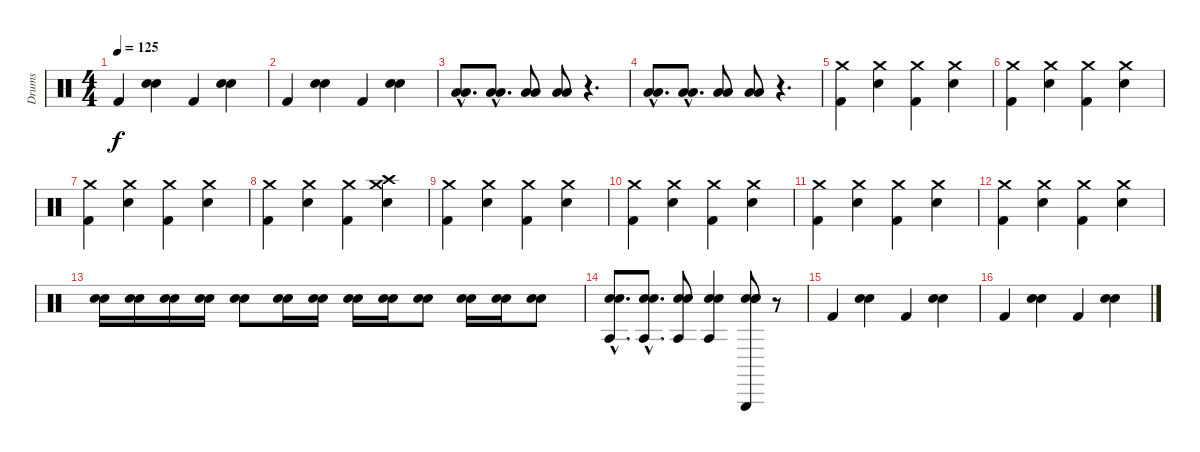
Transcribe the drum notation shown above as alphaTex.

\track ("Drums" "Drums") {instrument percussion}
\staff {score}
\articulation defaults
\ts (4 4)
\tempo 125
\clef neutral
\ks c "Kick (hit) 2".4{dy f}
("Electric Snare (hit)" "Hand Clap (hit)").4 "Kick (hit) 2".4 ("Electric Snare (hit)" "Hand Clap (hit)").4 |
"Kick (hit) 2".4 ("Electric Snare (hit)" "Hand Clap (hit)").4 "Kick (hit) 2".4 ("Electric Snare (hit)" "Hand Clap (hit)").4 |
("Low Floor Tom (hit)"{hac} "Low Tom (hit)"{hac}).8{d} ("Low Floor Tom (hit)"{hac} "Low Tom (hit)"{hac}).8{d} ("Low Floor Tom (hit)" "Low Tom (hit)").8 ("Low Floor Tom (hit)" "Low Tom (hit)").8 r.4{d} |
("Low Floor Tom (hit)"{hac} "Low Tom (hit)"{hac}).8{d} ("Low Floor Tom (hit)"{hac} "Low Tom (hit)"{hac}).8{d} ("Low Floor Tom (hit)" "Low Tom (hit)").8 ("Low Floor Tom (hit)" "Low Tom (hit)").8 r.4{d} |
("Kick (hit) 2" "Crash medium (hit)").4 ("Electric Snare (hit)" "Crash medium (hit)").4 ("Kick (hit) 2" "Crash medium (hit)").4 ("Electric Snare (hit)" "Crash medium (hit)").4 |
("Kick (hit) 2" "Crash medium (hit)").4 ("Electric Snare (hit)" "Crash medium (hit)").4 ("Kick (hit) 2" "Crash medium (hit)").4 ("Electric Snare (hit)" "Crash medium (hit)").4 |
("Kick (hit) 2" "Crash medium (hit)").4 ("Electric Snare (hit)" "Crash medium (hit)").4 ("Kick (hit) 2" "Crash medium (hit)").4 ("Electric Snare (hit)" "Crash medium (hit)").4 |
("Kick (hit) 2" "Crash medium (hit)").4 ("Electric Snare (hit)" "Crash medium (hit)").4 ("Kick (hit) 2" "Crash medium (hit)").4 ("Electric Snare (hit)" "Crash medium (hit)" "Crash high (hit)").4 |
("Kick (hit) 2" "Crash medium (hit)").4 ("Electric Snare (hit)" "Crash medium (hit)").4 ("Kick (hit) 2" "Crash medium (hit)").4 ("Electric Snare (hit)" "Crash medium (hit)").4 |
("Kick (hit) 2" "Crash medium (hit)").4 ("Electric Snare (hit)" "Crash medium (hit)").4 ("Kick (hit) 2" "Crash medium (hit)").4 ("Electric Snare (hit)" "Crash medium (hit)").4 |
("Kick (hit) 2" "Crash medium (hit)").4 ("Electric Snare (hit)" "Crash medium (hit)").4 ("Kick (hit) 2" "Crash medium (hit)").4 ("Electric Snare (hit)" "Crash medium (hit)").4 |
("Kick (hit) 2" "Crash medium (hit)").4 ("Electric Snare (hit)" "Crash medium (hit)").4 ("Kick (hit) 2" "Crash medium (hit)").4 ("Electric Snare (hit)" "Crash medium (hit)").4 |
("Electric Snare (hit)" "Electric Snare (hit)").16 ("Electric Snare (hit)" "Electric Snare (hit)").16 ("Electric Snare (hit)" "Electric Snare (hit)").16 ("Electric Snare (hit)" "Electric Snare (hit)").16 ("Electric Snare (hit)" "Electric Snare (hit)").8 ("Electric Snare (hit)" "Electric Snare (hit)").16 ("Electric Snare (hit)" "Electric Snare (hit)").16 ("Electric Snare (hit)" "Electric Snare (hit)").16 ("Electric Snare (hit)" "Electric Snare (hit)").16 ("Electric Snare (hit)" "Electric Snare (hit)").8 ("Electric Snare (hit)" "Electric Snare (hit)").16 ("Electric Snare (hit)" "Electric Snare (hit)").16 ("Electric Snare (hit)" "Electric Snare (hit)").8 |
("Agogo tow (hit)"{hac} "Electric Snare (hit)"{hac} "Electric Snare (hit)"{hac}).8{d} ("Agogo tow (hit)"{hac} "Electric Snare (hit)"{hac} "Electric Snare (hit)"{hac}).8{d} ("Agogo tow (hit)" "Electric Snare (hit)" "Electric Snare (hit)").8 ("Agogo tow (hit)" "Electric Snare (hit)" "Electric Snare (hit)").4 ("Triangle (hit)" "Electric Snare (hit)" "Electric Snare (hit)" "Electric Snare (hit)").8 r.8 |
"Kick (hit) 2".4 ("Electric Snare (hit)" "Hand Clap (hit)").4 "Kick (hit) 2".4 ("Electric Snare (hit)" "Hand Clap (hit)").4 |
"Kick (hit) 2".4 ("Electric Snare (hit)" "Hand Clap (hit)").4 "Kick (hit) 2".4 ("Electric Snare (hit)" "Hand Clap (hit)").4
